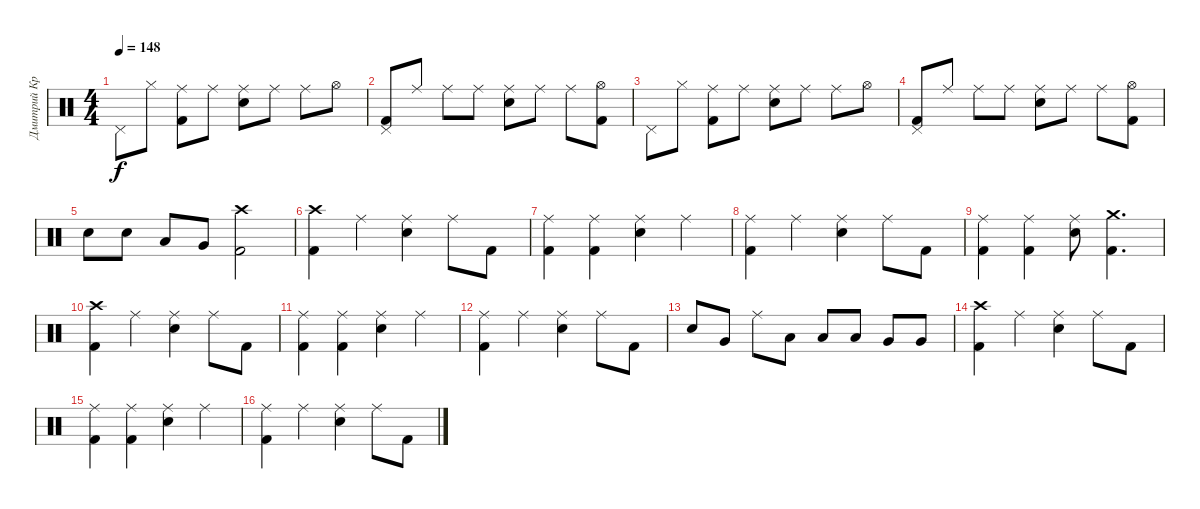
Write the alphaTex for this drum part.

\track ("Дмитрий Кривенков" "Дмитрий Кр") {instrument percussion}
\staff {score}
\articulation defaults
\ts (4 4)
\tempo 148
\clef neutral
\ks c "Pedal Hi-Hat (hit)".8{dy f} "Hi-Hat (closed)".8
("Ride (middle)" "Kick (hit) 2").8 "Ride (middle)".8 ("Ride (middle)" "Electric Snare (hit)").8 "Ride (middle)".8 "Ride (middle)".8 "Hi-Hat (open)".8 |
("Pedal Hi-Hat (hit)" "Kick (hit) 2").8 "Ride (middle)".8 "Ride (middle)".8 "Ride (middle)".8 ("Ride (middle)" "Electric Snare (hit)").8 "Ride (middle)".8 "Ride (middle)".8 ("Hi-Hat (open)" "Kick (hit) 2").8 |
"Pedal Hi-Hat (hit)".8 "Hi-Hat (closed)".8 ("Ride (middle)" "Kick (hit) 2").8 "Ride (middle)".8 ("Ride (middle)" "Electric Snare (hit)").8 "Ride (middle)".8 "Ride (middle)".8 "Hi-Hat (open)".8 |
("Pedal Hi-Hat (hit)" "Kick (hit) 2").8 "Ride (middle)".8 "Ride (middle)".8 "Ride (middle)".8 ("Ride (middle)" "Electric Snare (hit)").8 "Ride (middle)".8 "Ride (middle)".8 ("Hi-Hat (open)" "Kick (hit) 2").8 |
"Electric Snare (hit)".8 "Electric Snare (hit)".8 "Low Tom (hit)".8 "Very Low Tom (hit)".8 ("Crash high (hit)" "Kick (hit) 2").2 |
("Crash high (hit)" "Kick (hit) 2").4 "Ride (middle)".4 ("Ride (middle)" "Electric Snare (hit)").4 "Ride (middle)".8 "Kick (hit) 2".8 |
("Ride (middle)" "Kick (hit) 2").4 ("Ride (middle)" "Kick (hit) 2").4 ("Ride (middle)" "Electric Snare (hit)").4 "Ride (middle)".4 |
("Ride (middle)" "Kick (hit) 2").4 "Ride (middle)".4 ("Ride (middle)" "Electric Snare (hit)").4 "Ride (middle)".8 "Kick (hit) 2".8 |
("Ride (middle)" "Kick (hit) 2").4 ("Ride (middle)" "Kick (hit) 2").4 ("Ride (middle)" "Electric Snare (hit)").8 ("Crash medium (hit)" "Kick (hit) 2").4{d} |
("Crash high (hit)" "Kick (hit) 2").4 "Ride (middle)".4 ("Ride (middle)" "Electric Snare (hit)").4 "Ride (middle)".8 "Kick (hit) 2".8 |
("Ride (middle)" "Kick (hit) 2").4 ("Ride (middle)" "Kick (hit) 2").4 ("Ride (middle)" "Electric Snare (hit)").4 "Ride (middle)".4 |
("Ride (middle)" "Kick (hit) 2").4 "Ride (middle)".4 ("Ride (middle)" "Electric Snare (hit)").4 "Ride (middle)".8 "Kick (hit) 2".8 |
"Electric Snare (hit)".8 "Very Low Tom (hit)".8 "Ride (middle)".8 "Low Floor Tom (hit)".8 "Low Tom (hit)".8 "Low Tom (hit)".8 "Very Low Tom (hit)".8 "Very Low Tom (hit)".8 |
("Crash high (hit)" "Kick (hit) 2").4 "Ride (middle)".4 ("Ride (middle)" "Electric Snare (hit)").4 "Ride (middle)".8 "Kick (hit) 2".8 |
("Ride (middle)" "Kick (hit) 2").4 ("Ride (middle)" "Kick (hit) 2").4 ("Ride (middle)" "Electric Snare (hit)").4 "Ride (middle)".4 |
("Ride (middle)" "Kick (hit) 2").4 "Ride (middle)".4 ("Ride (middle)" "Electric Snare (hit)").4 "Ride (middle)".8 "Kick (hit) 2".8
